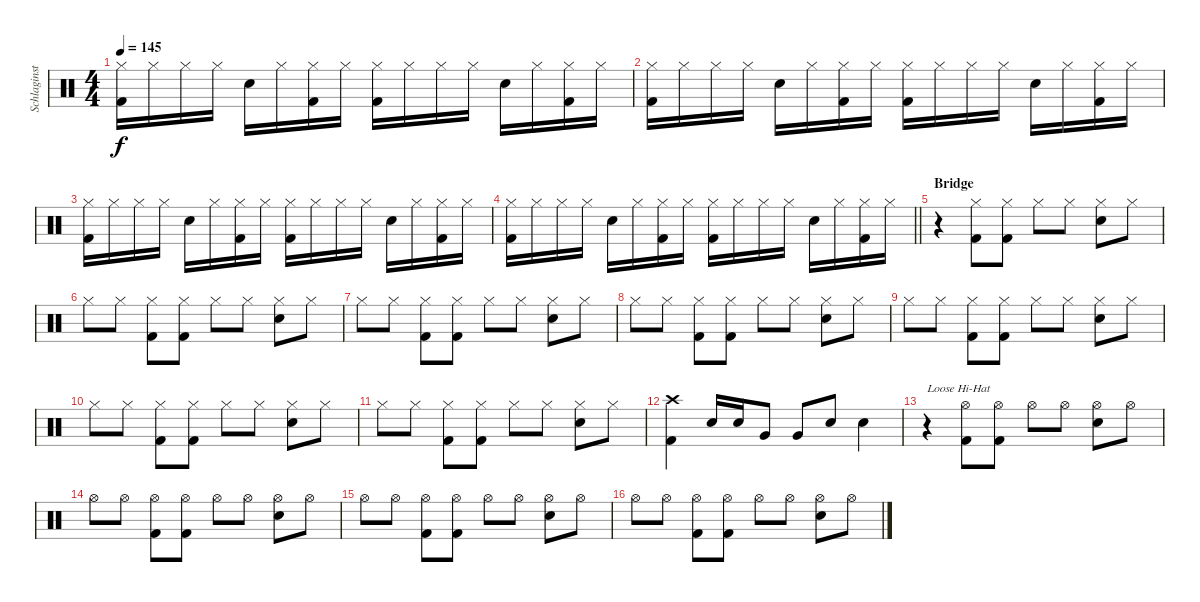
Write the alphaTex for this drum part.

\track ("Schlaginstrumente - Auswahl" "Schlaginst") {instrument percussion}
\staff {score}
\articulation defaults
\ts (4 4)
\tempo 145
\clef neutral
\ks c
("Hi-Hat (closed)" "Kick (hit) 2").16{dy f} "Hi-Hat (closed)".16 "Hi-Hat (closed)".16 "Hi-Hat (closed)".16 "Electric Snare (hit)".16 "Hi-Hat (closed)".16 ("Hi-Hat (closed)" "Kick (hit) 2").16 "Hi-Hat (closed)".16 ("Hi-Hat (closed)" "Kick (hit) 2").16 "Hi-Hat (closed)".16 "Hi-Hat (closed)".16 "Hi-Hat (closed)".16 "Electric Snare (hit)".16 "Hi-Hat (closed)".16 ("Hi-Hat (closed)" "Kick (hit) 2").16 "Hi-Hat (closed)".16 |
("Hi-Hat (closed)" "Kick (hit) 2").16 "Hi-Hat (closed)".16 "Hi-Hat (closed)".16 "Hi-Hat (closed)".16 "Electric Snare (hit)".16 "Hi-Hat (closed)".16 ("Hi-Hat (closed)" "Kick (hit) 2").16 "Hi-Hat (closed)".16 ("Hi-Hat (closed)" "Kick (hit) 2").16 "Hi-Hat (closed)".16 "Hi-Hat (closed)".16 "Hi-Hat (closed)".16 "Electric Snare (hit)".16 "Hi-Hat (closed)".16 ("Hi-Hat (closed)" "Kick (hit) 2").16 "Hi-Hat (closed)".16 |
("Hi-Hat (closed)" "Kick (hit) 2").16 "Hi-Hat (closed)".16 "Hi-Hat (closed)".16 "Hi-Hat (closed)".16 "Electric Snare (hit)".16 "Hi-Hat (closed)".16 ("Hi-Hat (closed)" "Kick (hit) 2").16 "Hi-Hat (closed)".16 ("Hi-Hat (closed)" "Kick (hit) 2").16 "Hi-Hat (closed)".16 "Hi-Hat (closed)".16 "Hi-Hat (closed)".16 "Electric Snare (hit)".16 "Hi-Hat (closed)".16 ("Hi-Hat (closed)" "Kick (hit) 2").16 "Hi-Hat (closed)".16 |
\barLineRight lightlight
("Hi-Hat (closed)" "Kick (hit) 2").16 "Hi-Hat (closed)".16 "Hi-Hat (closed)".16 "Hi-Hat (closed)".16 "Electric Snare (hit)".16 "Hi-Hat (closed)".16 ("Hi-Hat (closed)" "Kick (hit) 2").16 "Hi-Hat (closed)".16 ("Hi-Hat (closed)" "Kick (hit) 2").16 "Hi-Hat (closed)".16 "Hi-Hat (closed)".16 "Hi-Hat (closed)".16 "Electric Snare (hit)".16 "Hi-Hat (closed)".16 ("Hi-Hat (closed)" "Kick (hit) 2").16 "Hi-Hat (closed)".16 |
\section ("" "Bridge")
r.4 ("Hi-Hat (closed)" "Kick (hit) 2").8 ("Hi-Hat (closed)" "Kick (hit) 2").8 "Hi-Hat (closed)".8 "Hi-Hat (closed)".8 ("Hi-Hat (closed)" "Electric Snare (hit)").8 "Hi-Hat (closed)".8 |
"Hi-Hat (closed)".8 "Hi-Hat (closed)".8 ("Hi-Hat (closed)" "Kick (hit) 2").8 ("Hi-Hat (closed)" "Kick (hit) 2").8 "Hi-Hat (closed)".8 "Hi-Hat (closed)".8 ("Hi-Hat (closed)" "Electric Snare (hit)").8 "Hi-Hat (closed)".8 |
"Hi-Hat (closed)".8 "Hi-Hat (closed)".8 ("Hi-Hat (closed)" "Kick (hit) 2").8 ("Hi-Hat (closed)" "Kick (hit) 2").8 "Hi-Hat (closed)".8 "Hi-Hat (closed)".8 ("Hi-Hat (closed)" "Electric Snare (hit)").8 "Hi-Hat (closed)".8 |
"Hi-Hat (closed)".8 "Hi-Hat (closed)".8 ("Hi-Hat (closed)" "Kick (hit) 2").8 ("Hi-Hat (closed)" "Kick (hit) 2").8 "Hi-Hat (closed)".8 "Hi-Hat (closed)".8 ("Hi-Hat (closed)" "Electric Snare (hit)").8 "Hi-Hat (closed)".8 |
"Hi-Hat (closed)".8 "Hi-Hat (closed)".8 ("Hi-Hat (closed)" "Kick (hit) 2").8 ("Hi-Hat (closed)" "Kick (hit) 2").8 "Hi-Hat (closed)".8 "Hi-Hat (closed)".8 ("Hi-Hat (closed)" "Electric Snare (hit)").8 "Hi-Hat (closed)".8 |
"Hi-Hat (closed)".8 "Hi-Hat (closed)".8 ("Hi-Hat (closed)" "Kick (hit) 2").8 ("Hi-Hat (closed)" "Kick (hit) 2").8 "Hi-Hat (closed)".8 "Hi-Hat (closed)".8 ("Hi-Hat (closed)" "Electric Snare (hit)").8 "Hi-Hat (closed)".8 |
"Hi-Hat (closed)".8 "Hi-Hat (closed)".8 ("Hi-Hat (closed)" "Kick (hit) 2").8 ("Hi-Hat (closed)" "Kick (hit) 2").8 "Hi-Hat (closed)".8 "Hi-Hat (closed)".8 ("Hi-Hat (closed)" "Electric Snare (hit)").8 "Hi-Hat (closed)".8 |
("Crash high (hit)" "Kick (hit) 2").4 "Electric Snare (hit)".16 "Electric Snare (hit)".16 "Very Low Tom (hit)".8 "Very Low Tom (hit)".8 "Electric Snare (hit)".8 "Electric Snare (hit)".4 |
r.4{txt "Loose Hi-Hat"} ("Hi-Hat (open)" "Kick (hit) 2").8 ("Hi-Hat (open)" "Kick (hit) 2").8 "Hi-Hat (open)".8 "Hi-Hat (open)".8 ("Hi-Hat (open)" "Electric Snare (hit)").8 "Hi-Hat (open)".8 |
"Hi-Hat (open)".8 "Hi-Hat (open)".8 ("Hi-Hat (open)" "Kick (hit) 2").8 ("Hi-Hat (open)" "Kick (hit) 2").8 "Hi-Hat (open)".8 "Hi-Hat (open)".8 ("Hi-Hat (open)" "Electric Snare (hit)").8 "Hi-Hat (open)".8 |
"Hi-Hat (open)".8 "Hi-Hat (open)".8 ("Hi-Hat (open)" "Kick (hit) 2").8 ("Hi-Hat (open)" "Kick (hit) 2").8 "Hi-Hat (open)".8 "Hi-Hat (open)".8 ("Hi-Hat (open)" "Electric Snare (hit)").8 "Hi-Hat (open)".8 |
"Hi-Hat (open)".8 "Hi-Hat (open)".8 ("Hi-Hat (open)" "Kick (hit) 2").8 ("Hi-Hat (open)" "Kick (hit) 2").8 "Hi-Hat (open)".8 "Hi-Hat (open)".8 ("Hi-Hat (open)" "Electric Snare (hit)").8 "Hi-Hat (open)".8
